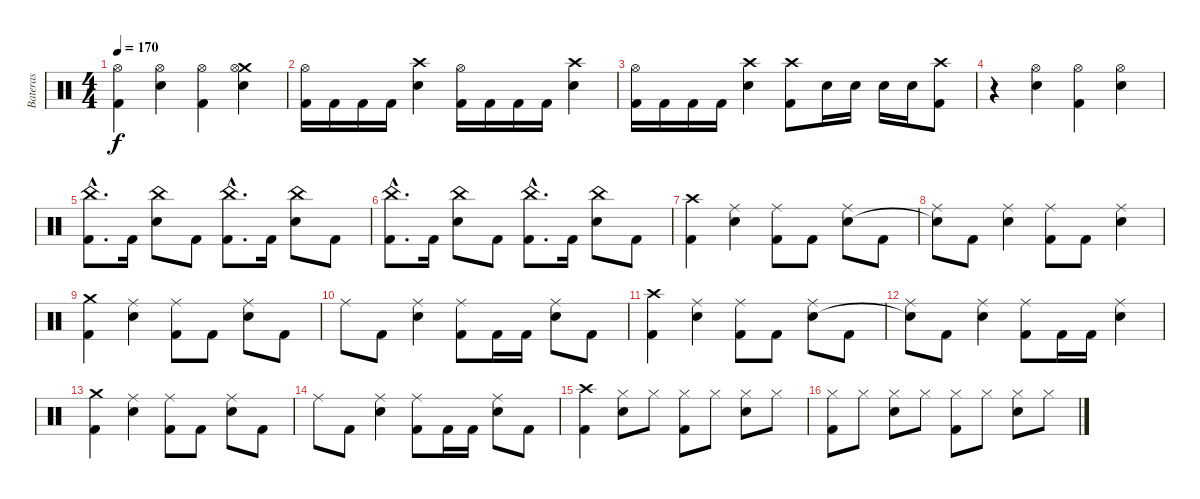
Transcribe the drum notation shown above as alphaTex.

\track ("Bateras" "Bateras") {instrument percussion}
\staff {score}
\articulation defaults
\ts (4 4)
\tempo 170
\clef neutral
\ks c
("Hi-Hat (open)" "Kick (hit) 2").4{dy f} ("Hi-Hat (open)" "Snare (hit) 2").4 ("Hi-Hat (open)" "Kick (hit) 2").4 ("Crash medium (hit)" "Hi-Hat (open)" "Snare (hit) 2").4 |
("Hi-Hat (open)" "Kick (hit) 2").16 "Kick (hit) 2".16 "Kick (hit) 2".16 "Kick (hit) 2".16 ("Crash high (hit)" "Snare (hit) 2").4 ("Hi-Hat (open)" "Kick (hit) 2").16 "Kick (hit) 2".16 "Kick (hit) 2".16 "Kick (hit) 2".16 ("Crash high (hit)" "Snare (hit) 2").4 |
("Hi-Hat (open)" "Kick (hit) 2").16 "Kick (hit) 2".16 "Kick (hit) 2".16 "Kick (hit) 2".16 ("Crash high (hit)" "Snare (hit) 2").4 ("Crash high (hit)" "Kick (hit) 2").8 "Snare (hit) 2".16 "Snare (hit) 2".16 "Snare (hit) 2".16 "Snare (hit) 2".16 ("Crash high (hit)" "Kick (hit) 2").8 |
r.4 ("Hi-Hat (open)" "Snare (hit) 2").4 ("Hi-Hat (open)" "Kick (hit) 2").4 ("Hi-Hat (open)" "Snare (hit) 2").4 |
("China (hit)"{hac} "Kick (hit) 2"{hac}).8{d} "Kick (hit) 2".16 ("China (hit)" "Snare (hit) 2").8 "Kick (hit) 2".8 ("China (hit)"{hac} "Kick (hit) 2"{hac}).8{d} "Kick (hit) 2".16 ("China (hit)" "Snare (hit) 2").8 "Kick (hit) 2".8 |
("China (hit)"{hac} "Kick (hit) 2"{hac}).8{d} "Kick (hit) 2".16 ("China (hit)" "Snare (hit) 2").8 "Kick (hit) 2".8 ("China (hit)"{hac} "Kick (hit) 2"{hac}).8{d} "Kick (hit) 2".16 ("China (hit)" "Snare (hit) 2").8 "Kick (hit) 2".8 |
("Crash high (hit)" "Kick (hit) 2").4 ("Ride (middle)" "Snare (hit) 2").4 ("Ride (middle)" "Kick (hit) 2").8 "Kick (hit) 2".8 ("Ride (middle)" "Snare (hit) 2").8 "Kick (hit) 2".8 |
("Ride (middle)" "Snare (hit)"{t}).8 "Kick (hit) 2".8 ("Ride (middle)" "Snare (hit) 2").4 ("Ride (middle)" "Kick (hit) 2").8 "Kick (hit) 2".8 ("Ride (middle)" "Snare (hit) 2").4 |
("Crash medium (hit)" "Kick (hit) 2").4 ("Ride (middle)" "Snare (hit) 2").4 ("Ride (middle)" "Kick (hit) 2").8 "Kick (hit) 2".8 ("Ride (middle)" "Snare (hit) 2").8 "Kick (hit) 2".8 |
"Ride (middle)".8 "Kick (hit) 2".8 ("Ride (middle)" "Snare (hit) 2").4 ("Ride (middle)" "Kick (hit) 2").8 "Kick (hit) 2".16 "Kick (hit) 2".16 ("Ride (middle)" "Snare (hit) 2").8 "Kick (hit) 2".8 |
("Crash high (hit)" "Kick (hit) 2").4 ("Ride (middle)" "Snare (hit) 2").4 ("Ride (middle)" "Kick (hit) 2").8 "Kick (hit) 2".8 ("Ride (middle)" "Snare (hit) 2").8 "Kick (hit) 2".8 |
("Ride (middle)" "Snare (hit)"{t}).8 "Kick (hit) 2".8 ("Ride (middle)" "Snare (hit) 2").4 ("Ride (middle)" "Kick (hit) 2").8 "Kick (hit) 2".16 "Kick (hit) 2".16 ("Ride (middle)" "Snare (hit) 2").4 |
("Crash medium (hit)" "Kick (hit) 2").4 ("Ride (middle)" "Snare (hit) 2").4 ("Ride (middle)" "Kick (hit) 2").8 "Kick (hit) 2".8 ("Ride (middle)" "Snare (hit) 2").8 "Kick (hit) 2".8 |
"Ride (middle)".8 "Kick (hit) 2".8 ("Ride (middle)" "Snare (hit) 2").4 ("Ride (middle)" "Kick (hit) 2").8 "Kick (hit) 2".16 "Kick (hit) 2".16 ("Ride (middle)" "Snare (hit) 2").8 "Kick (hit) 2".8 |
("Crash high (hit)" "Kick (hit) 2").4 ("Hi-Hat (closed)" "Snare (hit) 2").8 "Hi-Hat (closed)".8 ("Hi-Hat (closed)" "Kick (hit) 2").8 "Hi-Hat (closed)".8 ("Hi-Hat (closed)" "Snare (hit) 2").8 "Hi-Hat (closed)".8 |
("Hi-Hat (closed)" "Kick (hit) 2").8 "Hi-Hat (closed)".8 ("Hi-Hat (closed)" "Snare (hit) 2").8 "Hi-Hat (closed)".8 ("Hi-Hat (closed)" "Kick (hit) 2").8 "Hi-Hat (closed)".8 ("Hi-Hat (closed)" "Snare (hit) 2").8 "Hi-Hat (closed)".8
